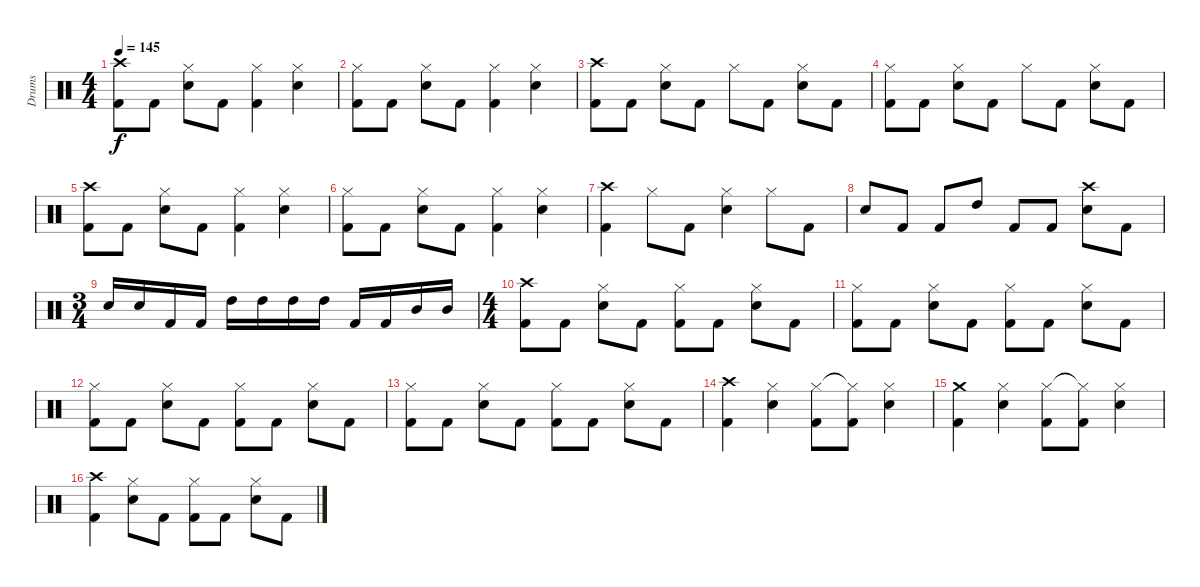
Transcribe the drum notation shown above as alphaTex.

\track ("Drums" "Drums") {instrument percussion}
\staff {score}
\articulation defaults
\ts (4 4)
\tempo 145
\clef neutral
\ks c
("Crash high (hit)" "Kick (hit) 2").8{dy f} "Kick (hit) 2".8 ("Hi-Hat (closed)" "Electric Snare (hit)").8 "Kick (hit) 2".8 ("Hi-Hat (closed)" "Kick (hit) 2").4 ("Hi-Hat (closed)" "Electric Snare (hit)").4 |
("Hi-Hat (closed)" "Kick (hit) 2").8 "Kick (hit) 2".8 ("Hi-Hat (closed)" "Electric Snare (hit)").8 "Kick (hit) 2".8 ("Hi-Hat (closed)" "Kick (hit) 2").4 ("Hi-Hat (closed)" "Electric Snare (hit)").4 |
("Crash high (hit)" "Kick (hit) 2").8 "Kick (hit) 2".8 ("Hi-Hat (closed)" "Electric Snare (hit)").8 "Kick (hit) 2".8 "Hi-Hat (closed)".8 "Kick (hit) 2".8 ("Hi-Hat (closed)" "Electric Snare (hit)").8 "Kick (hit) 2".8 |
("Hi-Hat (closed)" "Kick (hit) 2").8 "Kick (hit) 2".8 ("Hi-Hat (closed)" "Electric Snare (hit)").8 "Kick (hit) 2".8 "Hi-Hat (closed)".8 "Kick (hit) 2".8 ("Hi-Hat (closed)" "Electric Snare (hit)").8 "Kick (hit) 2".8 |
("Crash high (hit)" "Kick (hit) 2").8 "Kick (hit) 2".8 ("Hi-Hat (closed)" "Electric Snare (hit)").8 "Kick (hit) 2".8 ("Hi-Hat (closed)" "Kick (hit) 2").4 ("Hi-Hat (closed)" "Electric Snare (hit)").4 |
("Hi-Hat (closed)" "Kick (hit) 2").8 "Kick (hit) 2".8 ("Hi-Hat (closed)" "Electric Snare (hit)").8 "Kick (hit) 2".8 ("Hi-Hat (closed)" "Kick (hit) 2").4 ("Hi-Hat (closed)" "Electric Snare (hit)").4 |
("Crash high (hit)" "Kick (hit) 2").4 "Hi-Hat (closed)".8 "Kick (hit) 2".8 ("Hi-Hat (closed)" "Electric Snare (hit)").4 "Hi-Hat (closed)".8 "Kick (hit) 2".8 |
"Electric Snare (hit)".8 "Kick (hit) 2".8 "Kick (hit) 2".8 "High Tom (hit)".8 "Kick (hit) 2".8 "Kick (hit) 2".8 ("Crash high (hit)" "Electric Snare (hit)").8 "Kick (hit) 2".8 |
\ts (3 4)
"Electric Snare (hit)".16 "Electric Snare (hit)".16 "Kick (hit) 2".16 "Kick (hit) 2".16 "High Tom (hit)".16 "High Tom (hit)".16 "High Tom (hit)".16 "High Tom (hit)".16 "Kick (hit) 2".16 "Kick (hit) 2".16 "Mid Tom (hit)".16 "Mid Tom (hit)".16 |
\ts (4 4)
("Crash high (hit)" "Kick (hit) 2").8 "Kick (hit) 2".8 ("Hi-Hat (closed)" "Electric Snare (hit)").8 "Kick (hit) 2".8 ("Hi-Hat (closed)" "Kick (hit) 2").8 "Kick (hit) 2".8 ("Hi-Hat (closed)" "Electric Snare (hit)").8 "Kick (hit) 2".8 |
("Hi-Hat (closed)" "Kick (hit) 2").8 "Kick (hit) 2".8 ("Hi-Hat (closed)" "Electric Snare (hit)").8 "Kick (hit) 2".8 ("Hi-Hat (closed)" "Kick (hit) 2").8 "Kick (hit) 2".8 ("Hi-Hat (closed)" "Electric Snare (hit)").8 "Kick (hit) 2".8 |
("Hi-Hat (closed)" "Kick (hit) 2").8 "Kick (hit) 2".8 ("Hi-Hat (closed)" "Electric Snare (hit)").8 "Kick (hit) 2".8 ("Hi-Hat (closed)" "Kick (hit) 2").8 "Kick (hit) 2".8 ("Hi-Hat (closed)" "Electric Snare (hit)").8 "Kick (hit) 2".8 |
("Hi-Hat (closed)" "Kick (hit) 2").8 "Kick (hit) 2".8 ("Hi-Hat (closed)" "Electric Snare (hit)").8 "Kick (hit) 2".8 ("Hi-Hat (closed)" "Kick (hit) 2").8 "Kick (hit) 2".8 ("Hi-Hat (closed)" "Electric Snare (hit)").8 "Kick (hit) 2".8 |
("Crash high (hit)" "Kick (hit) 2").4 ("Hi-Hat (closed)" "Electric Snare (hit)").4 ("Hi-Hat (closed)" "Kick (hit) 2").8 ("Hi-Hat (closed)"{t} "Kick (hit) 2").8 ("Hi-Hat (closed)" "Electric Snare (hit)").4 |
("Crash medium (hit)" "Kick (hit) 2").4 ("Hi-Hat (closed)" "Electric Snare (hit)").4 ("Hi-Hat (closed)" "Kick (hit) 2").8 ("Hi-Hat (closed)"{t} "Kick (hit) 2").8 ("Hi-Hat (closed)" "Electric Snare (hit)").4 |
("Crash high (hit)" "Kick (hit) 2").4 ("Hi-Hat (closed)" "Electric Snare (hit)").8 "Kick (hit) 2".8 ("Hi-Hat (closed)" "Kick (hit) 2").8 "Kick (hit) 2".8 ("Hi-Hat (closed)" "Electric Snare (hit)").8 "Kick (hit) 2".8
